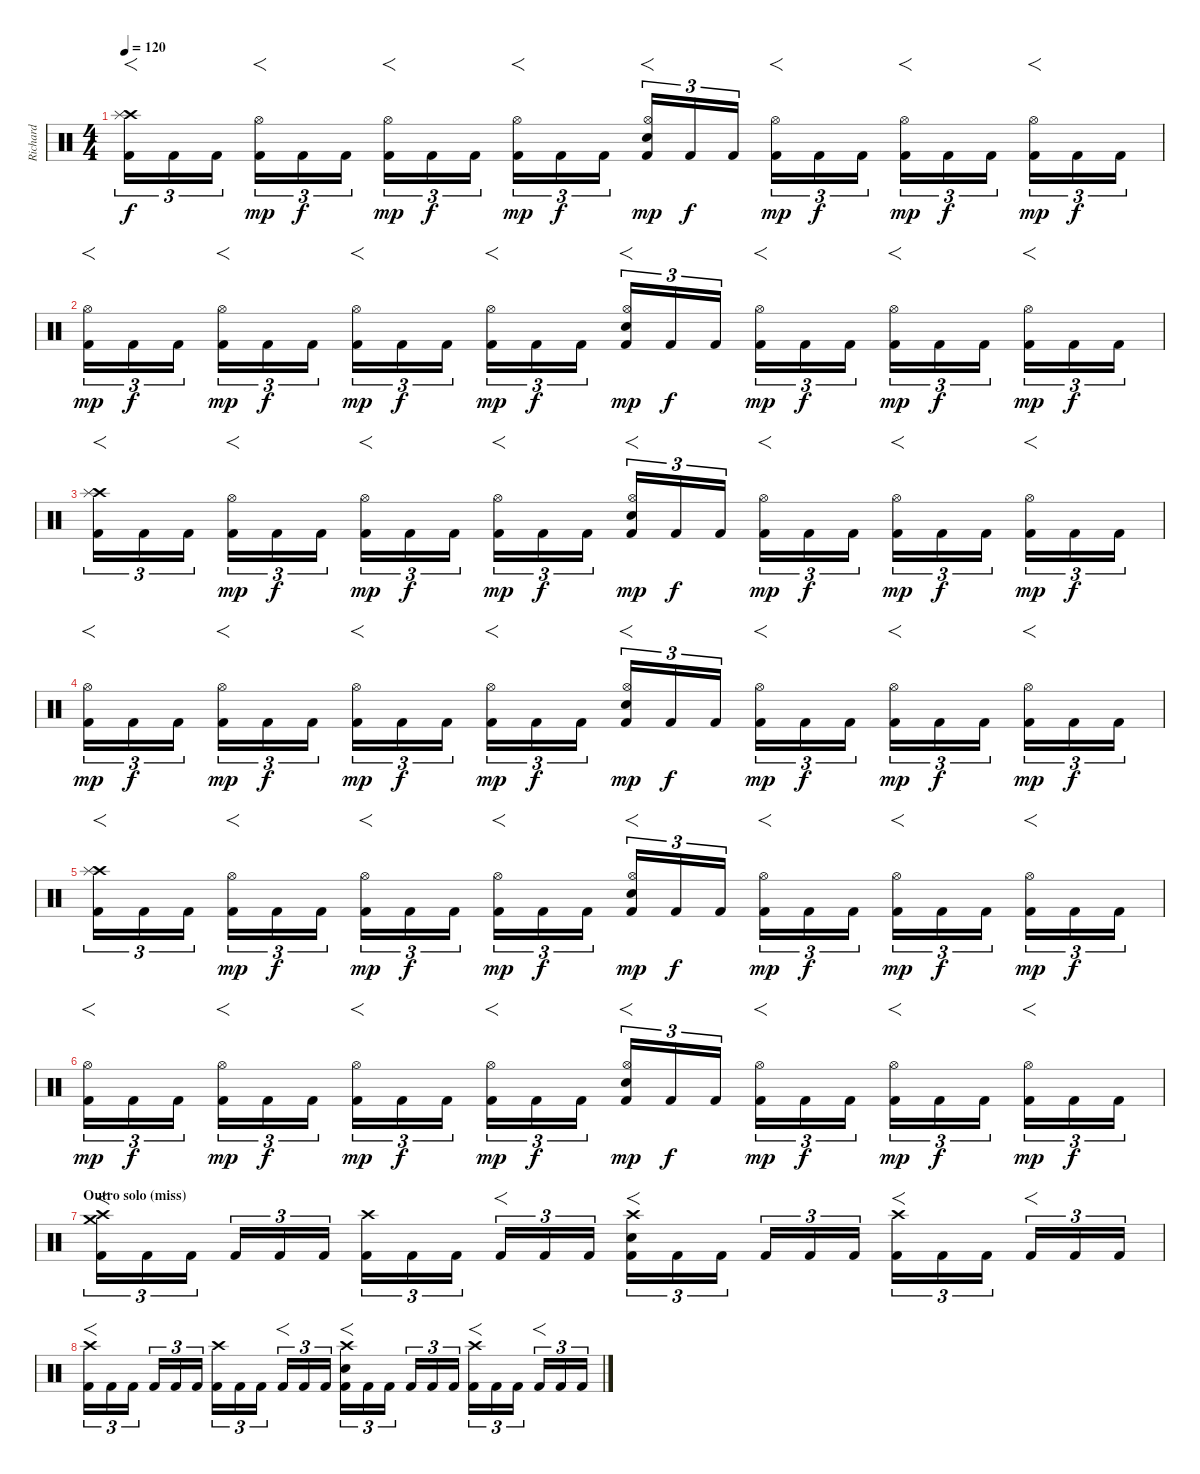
\track ("Richard " "Richard ") {instrument percussion}
\staff {score}
\articulation defaults
\ts (4 4)
\tempo 120
\clef neutral
\ks c
("Crash high (hit)" "Splash (hit)" "Kick (hit) 2").16{f tu (3 2) dy f} "Kick (hit) 2".16{tu (3 2)} "Kick (hit) 2".16{tu (3 2)} ("Hi-Hat (open)" "Kick (hit) 2").16{f tu (3 2) dy mp} "Kick (hit) 2".16{tu (3 2) dy f} "Kick (hit) 2".16{tu (3 2)} ("Hi-Hat (open)" "Kick (hit) 2").16{f tu (3 2) dy mp} "Kick (hit) 2".16{tu (3 2) dy f} "Kick (hit) 2".16{tu (3 2)} ("Hi-Hat (open)" "Kick (hit) 2").16{f tu (3 2) dy mp} "Kick (hit) 2".16{tu (3 2) dy f} "Kick (hit) 2".16{tu (3 2)} ("Hi-Hat (open)" "Snare (hit) 2" "Kick (hit) 2").16{f tu (3 2) dy mp} "Kick (hit) 2".16{tu (3 2) dy f} "Kick (hit) 2".16{tu (3 2)} ("Hi-Hat (open)" "Kick (hit) 2").16{f tu (3 2) dy mp} "Kick (hit) 2".16{tu (3 2) dy f} "Kick (hit) 2".16{tu (3 2)} ("Hi-Hat (open)" "Kick (hit) 2").16{f tu (3 2) dy mp} "Kick (hit) 2".16{tu (3 2) dy f} "Kick (hit) 2".16{tu (3 2)} ("Hi-Hat (open)" "Kick (hit) 2").16{f tu (3 2) dy mp} "Kick (hit) 2".16{tu (3 2) dy f} "Kick (hit) 2".16{tu (3 2)} |
("Hi-Hat (open)" "Kick (hit) 2").16{f tu (3 2) dy mp} "Kick (hit) 2".16{tu (3 2) dy f} "Kick (hit) 2".16{tu (3 2)} ("Hi-Hat (open)" "Kick (hit) 2").16{f tu (3 2) dy mp} "Kick (hit) 2".16{tu (3 2) dy f} "Kick (hit) 2".16{tu (3 2)} ("Hi-Hat (open)" "Kick (hit) 2").16{f tu (3 2) dy mp} "Kick (hit) 2".16{tu (3 2) dy f} "Kick (hit) 2".16{tu (3 2)} ("Hi-Hat (open)" "Kick (hit) 2").16{f tu (3 2) dy mp} "Kick (hit) 2".16{tu (3 2) dy f} "Kick (hit) 2".16{tu (3 2)} ("Hi-Hat (open)" "Snare (hit) 2" "Kick (hit) 2").16{f tu (3 2) dy mp} "Kick (hit) 2".16{tu (3 2) dy f} "Kick (hit) 2".16{tu (3 2)} ("Hi-Hat (open)" "Kick (hit) 2").16{f tu (3 2) dy mp} "Kick (hit) 2".16{tu (3 2) dy f} "Kick (hit) 2".16{tu (3 2)} ("Hi-Hat (open)" "Kick (hit) 2").16{f tu (3 2) dy mp} "Kick (hit) 2".16{tu (3 2) dy f} "Kick (hit) 2".16{tu (3 2)} ("Hi-Hat (open)" "Kick (hit) 2").16{f tu (3 2) dy mp} "Kick (hit) 2".16{tu (3 2) dy f} "Kick (hit) 2".16{tu (3 2)} |
("Crash high (hit)" "Splash (hit)" "Kick (hit) 2").16{f tu (3 2)} "Kick (hit) 2".16{tu (3 2)} "Kick (hit) 2".16{tu (3 2)} ("Hi-Hat (open)" "Kick (hit) 2").16{f tu (3 2) dy mp} "Kick (hit) 2".16{tu (3 2) dy f} "Kick (hit) 2".16{tu (3 2)} ("Hi-Hat (open)" "Kick (hit) 2").16{f tu (3 2) dy mp} "Kick (hit) 2".16{tu (3 2) dy f} "Kick (hit) 2".16{tu (3 2)} ("Hi-Hat (open)" "Kick (hit) 2").16{f tu (3 2) dy mp} "Kick (hit) 2".16{tu (3 2) dy f} "Kick (hit) 2".16{tu (3 2)} ("Hi-Hat (open)" "Snare (hit) 2" "Kick (hit) 2").16{f tu (3 2) dy mp} "Kick (hit) 2".16{tu (3 2) dy f} "Kick (hit) 2".16{tu (3 2)} ("Hi-Hat (open)" "Kick (hit) 2").16{f tu (3 2) dy mp} "Kick (hit) 2".16{tu (3 2) dy f} "Kick (hit) 2".16{tu (3 2)} ("Hi-Hat (open)" "Kick (hit) 2").16{f tu (3 2) dy mp} "Kick (hit) 2".16{tu (3 2) dy f} "Kick (hit) 2".16{tu (3 2)} ("Hi-Hat (open)" "Kick (hit) 2").16{f tu (3 2) dy mp} "Kick (hit) 2".16{tu (3 2) dy f} "Kick (hit) 2".16{tu (3 2)} |
("Hi-Hat (open)" "Kick (hit) 2").16{f tu (3 2) dy mp} "Kick (hit) 2".16{tu (3 2) dy f} "Kick (hit) 2".16{tu (3 2)} ("Hi-Hat (open)" "Kick (hit) 2").16{f tu (3 2) dy mp} "Kick (hit) 2".16{tu (3 2) dy f} "Kick (hit) 2".16{tu (3 2)} ("Hi-Hat (open)" "Kick (hit) 2").16{f tu (3 2) dy mp} "Kick (hit) 2".16{tu (3 2) dy f} "Kick (hit) 2".16{tu (3 2)} ("Hi-Hat (open)" "Kick (hit) 2").16{f tu (3 2) dy mp} "Kick (hit) 2".16{tu (3 2) dy f} "Kick (hit) 2".16{tu (3 2)} ("Hi-Hat (open)" "Snare (hit) 2" "Kick (hit) 2").16{f tu (3 2) dy mp} "Kick (hit) 2".16{tu (3 2) dy f} "Kick (hit) 2".16{tu (3 2)} ("Hi-Hat (open)" "Kick (hit) 2").16{f tu (3 2) dy mp} "Kick (hit) 2".16{tu (3 2) dy f} "Kick (hit) 2".16{tu (3 2)} ("Hi-Hat (open)" "Kick (hit) 2").16{f tu (3 2) dy mp} "Kick (hit) 2".16{tu (3 2) dy f} "Kick (hit) 2".16{tu (3 2)} ("Hi-Hat (open)" "Kick (hit) 2").16{f tu (3 2) dy mp} "Kick (hit) 2".16{tu (3 2) dy f} "Kick (hit) 2".16{tu (3 2)} |
("Crash high (hit)" "Splash (hit)" "Kick (hit) 2").16{f tu (3 2)} "Kick (hit) 2".16{tu (3 2)} "Kick (hit) 2".16{tu (3 2)} ("Hi-Hat (open)" "Kick (hit) 2").16{f tu (3 2) dy mp} "Kick (hit) 2".16{tu (3 2) dy f} "Kick (hit) 2".16{tu (3 2)} ("Hi-Hat (open)" "Kick (hit) 2").16{f tu (3 2) dy mp} "Kick (hit) 2".16{tu (3 2) dy f} "Kick (hit) 2".16{tu (3 2)} ("Hi-Hat (open)" "Kick (hit) 2").16{f tu (3 2) dy mp} "Kick (hit) 2".16{tu (3 2) dy f} "Kick (hit) 2".16{tu (3 2)} ("Hi-Hat (open)" "Snare (hit) 2" "Kick (hit) 2").16{f tu (3 2) dy mp} "Kick (hit) 2".16{tu (3 2) dy f} "Kick (hit) 2".16{tu (3 2)} ("Hi-Hat (open)" "Kick (hit) 2").16{f tu (3 2) dy mp} "Kick (hit) 2".16{tu (3 2) dy f} "Kick (hit) 2".16{tu (3 2)} ("Hi-Hat (open)" "Kick (hit) 2").16{f tu (3 2) dy mp} "Kick (hit) 2".16{tu (3 2) dy f} "Kick (hit) 2".16{tu (3 2)} ("Hi-Hat (open)" "Kick (hit) 2").16{f tu (3 2) dy mp} "Kick (hit) 2".16{tu (3 2) dy f} "Kick (hit) 2".16{tu (3 2)} |
("Hi-Hat (open)" "Kick (hit) 2").16{f tu (3 2) dy mp} "Kick (hit) 2".16{tu (3 2) dy f} "Kick (hit) 2".16{tu (3 2)} ("Hi-Hat (open)" "Kick (hit) 2").16{f tu (3 2) dy mp} "Kick (hit) 2".16{tu (3 2) dy f} "Kick (hit) 2".16{tu (3 2)} ("Hi-Hat (open)" "Kick (hit) 2").16{f tu (3 2) dy mp} "Kick (hit) 2".16{tu (3 2) dy f} "Kick (hit) 2".16{tu (3 2)} ("Hi-Hat (open)" "Kick (hit) 2").16{f tu (3 2) dy mp} "Kick (hit) 2".16{tu (3 2) dy f} "Kick (hit) 2".16{tu (3 2)} ("Hi-Hat (open)" "Snare (hit) 2" "Kick (hit) 2").16{f tu (3 2) dy mp} "Kick (hit) 2".16{tu (3 2) dy f} "Kick (hit) 2".16{tu (3 2)} ("Hi-Hat (open)" "Kick (hit) 2").16{f tu (3 2) dy mp} "Kick (hit) 2".16{tu (3 2) dy f} "Kick (hit) 2".16{tu (3 2)} ("Hi-Hat (open)" "Kick (hit) 2").16{f tu (3 2) dy mp} "Kick (hit) 2".16{tu (3 2) dy f} "Kick (hit) 2".16{tu (3 2)} ("Hi-Hat (open)" "Kick (hit) 2").16{f tu (3 2) dy mp} "Kick (hit) 2".16{tu (3 2) dy f} "Kick (hit) 2".16{tu (3 2)} |
\section ("" "Outro solo (miss)")
("Crash high (hit)" "Crash medium (hit)" "Kick (hit) 2").16{f tu (3 2)} "Kick (hit) 2".16{tu (3 2)} "Kick (hit) 2".16{tu (3 2)} "Kick (hit) 2".16{tu (3 2)} "Kick (hit) 2".16{tu (3 2)} "Kick (hit) 2".16{tu (3 2)} ("Crash high (hit)" "Kick (hit) 2").16{tu (3 2)} "Kick (hit) 2".16{tu (3 2)} "Kick (hit) 2".16{tu (3 2)} "Kick (hit) 2".16{f tu (3 2)} "Kick (hit) 2".16{tu (3 2)} "Kick (hit) 2".16{tu (3 2)} ("Crash high (hit)" "Snare (hit) 2" "Kick (hit) 2").16{f tu (3 2)} "Kick (hit) 2".16{tu (3 2)} "Kick (hit) 2".16{tu (3 2)} "Kick (hit) 2".16{tu (3 2)} "Kick (hit) 2".16{tu (3 2)} "Kick (hit) 2".16{tu (3 2)} ("Crash high (hit)" "Kick (hit) 2").16{f tu (3 2)} "Kick (hit) 2".16{tu (3 2)} "Kick (hit) 2".16{tu (3 2)} "Kick (hit) 2".16{f tu (3 2)} "Kick (hit) 2".16{tu (3 2)} "Kick (hit) 2".16{tu (3 2)} |
("Crash high (hit)" "Kick (hit) 2").16{f tu (3 2)} "Kick (hit) 2".16{tu (3 2)} "Kick (hit) 2".16{tu (3 2)} "Kick (hit) 2".16{tu (3 2)} "Kick (hit) 2".16{tu (3 2)} "Kick (hit) 2".16{tu (3 2)} ("Crash high (hit)" "Kick (hit) 2").16{tu (3 2)} "Kick (hit) 2".16{tu (3 2)} "Kick (hit) 2".16{tu (3 2)} "Kick (hit) 2".16{f tu (3 2)} "Kick (hit) 2".16{tu (3 2)} "Kick (hit) 2".16{tu (3 2)} ("Crash high (hit)" "Snare (hit) 2" "Kick (hit) 2").16{f tu (3 2)} "Kick (hit) 2".16{tu (3 2)} "Kick (hit) 2".16{tu (3 2)} "Kick (hit) 2".16{tu (3 2)} "Kick (hit) 2".16{tu (3 2)} "Kick (hit) 2".16{tu (3 2)} ("Crash high (hit)" "Kick (hit) 2").16{f tu (3 2)} "Kick (hit) 2".16{tu (3 2)} "Kick (hit) 2".16{tu (3 2)} "Kick (hit) 2".16{f tu (3 2)} "Kick (hit) 2".16{tu (3 2)} "Kick (hit) 2".16{tu (3 2)}
